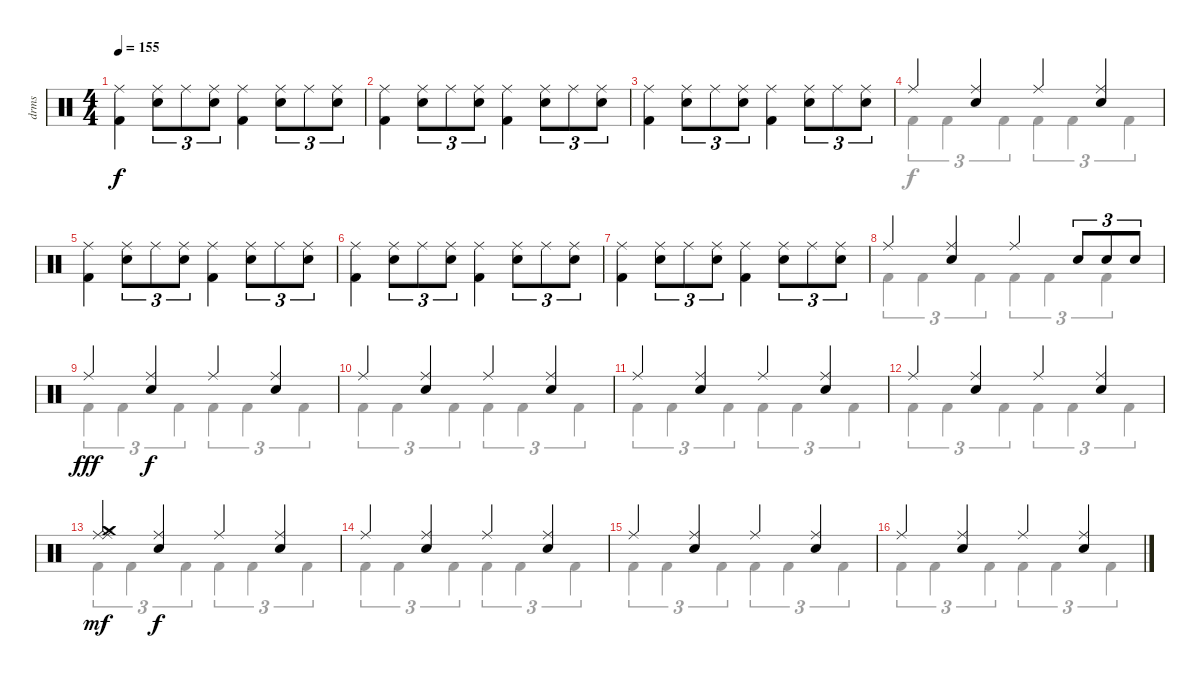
\track ("drms" "drms") {instrument percussion}
\staff {score}
\articulation defaults
\voice
\ts (4 4)
\tempo 155
\clef neutral
\ks c
("Ride (middle)" "Kick (hit) 2").4{dy f} ("Ride (middle)" "Snare (hit) 2").8{tu (3 2)} "Ride (middle)".8{tu (3 2)} ("Ride (middle)" "Snare (hit) 2").8{tu (3 2)} ("Ride (middle)" "Kick (hit) 2").4 ("Ride (middle)" "Snare (hit) 2").8{tu (3 2)} "Ride (middle)".8{tu (3 2)} ("Ride (middle)" "Snare (hit) 2").8{tu (3 2)} |
("Ride (middle)" "Kick (hit) 2").4 ("Ride (middle)" "Snare (hit) 2").8{tu (3 2)} "Ride (middle)".8{tu (3 2)} ("Ride (middle)" "Snare (hit) 2").8{tu (3 2)} ("Ride (middle)" "Kick (hit) 2").4 ("Ride (middle)" "Snare (hit) 2").8{tu (3 2)} "Ride (middle)".8{tu (3 2)} ("Ride (middle)" "Snare (hit) 2").8{tu (3 2)} |
("Ride (middle)" "Kick (hit) 2").4 ("Ride (middle)" "Snare (hit) 2").8{tu (3 2)} "Ride (middle)".8{tu (3 2)} ("Ride (middle)" "Snare (hit) 2").8{tu (3 2)} ("Ride (middle)" "Kick (hit) 2").4 ("Ride (middle)" "Snare (hit) 2").8{tu (3 2)} "Ride (middle)".8{tu (3 2)} ("Ride (middle)" "Snare (hit) 2").8{tu (3 2)} |
"Ride (middle)".4 ("Ride (middle)" "Snare (hit) 2").4 "Ride (middle)".4 ("Ride (middle)" "Snare (hit) 2").4 |
("Ride (middle)" "Kick (hit) 2").4 ("Ride (middle)" "Snare (hit) 2").8{tu (3 2)} "Ride (middle)".8{tu (3 2)} ("Ride (middle)" "Snare (hit) 2").8{tu (3 2)} ("Ride (middle)" "Kick (hit) 2").4 ("Ride (middle)" "Snare (hit) 2").8{tu (3 2)} "Ride (middle)".8{tu (3 2)} ("Ride (middle)" "Snare (hit) 2").8{tu (3 2)} |
("Ride (middle)" "Kick (hit) 2").4 ("Ride (middle)" "Snare (hit) 2").8{tu (3 2)} "Ride (middle)".8{tu (3 2)} ("Ride (middle)" "Snare (hit) 2").8{tu (3 2)} ("Ride (middle)" "Kick (hit) 2").4 ("Ride (middle)" "Snare (hit) 2").8{tu (3 2)} "Ride (middle)".8{tu (3 2)} ("Ride (middle)" "Snare (hit) 2").8{tu (3 2)} |
("Ride (middle)" "Kick (hit) 2").4 ("Ride (middle)" "Snare (hit) 2").8{tu (3 2)} "Ride (middle)".8{tu (3 2)} ("Ride (middle)" "Snare (hit) 2").8{tu (3 2)} ("Ride (middle)" "Kick (hit) 2").4 ("Ride (middle)" "Snare (hit) 2").8{tu (3 2)} "Ride (middle)".8{tu (3 2)} ("Ride (middle)" "Snare (hit) 2").8{tu (3 2)} |
"Ride (middle)".4 ("Ride (middle)" "Snare (hit) 2").4 "Ride (middle)".4 "Snare (hit) 2".8{tu (3 2)} "Snare (hit) 2".8{tu (3 2)} "Snare (hit) 2".8{tu (3 2)} |
"Ride (middle)".4{dy fff} ("Ride (middle)" "Snare (hit) 2").4{dy f} "Ride (middle)".4 ("Ride (middle)" "Snare (hit) 2").4 |
"Ride (middle)".4 ("Ride (middle)" "Snare (hit) 2").4 "Ride (middle)".4 ("Ride (middle)" "Snare (hit) 2").4 |
"Ride (middle)".4 ("Ride (middle)" "Snare (hit) 2").4 "Ride (middle)".4 ("Ride (middle)" "Snare (hit) 2").4 |
"Ride (middle)".4 ("Ride (middle)" "Snare (hit) 2").4 "Ride (middle)".4 ("Ride (middle)" "Snare (hit) 2").4 |
("Ride (middle)" "Ride (middle)" "Crash medium (hit)").4{dy mf} ("Ride (middle)" "Snare (hit) 2").4{dy f} "Ride (middle)".4 ("Ride (middle)" "Snare (hit) 2").4 |
"Ride (middle)".4 ("Ride (middle)" "Snare (hit) 2").4 "Ride (middle)".4 ("Ride (middle)" "Snare (hit) 2").4 |
"Ride (middle)".4 ("Ride (middle)" "Snare (hit) 2").4 "Ride (middle)".4 ("Ride (middle)" "Snare (hit) 2").4 |
"Ride (middle)".4 ("Ride (middle)" "Snare (hit) 2").4 "Ride (middle)".4 ("Ride (middle)" "Snare (hit) 2").4
\voice
\clef neutral
\ottava regular
\simile none
\ks c
|
|
|
"Kick (hit) 2".4{tu (3 2)} "Kick (hit) 2".4{tu (3 2)} "Kick (hit) 2".4{tu (3 2)} "Kick (hit) 2".4{tu (3 2)} "Kick (hit) 2".4{tu (3 2)} "Kick (hit) 2".4{tu (3 2)} |
|
|
|
"Kick (hit) 2".4{tu (3 2)} "Kick (hit) 2".4{tu (3 2)} "Kick (hit) 2".4{tu (3 2)} "Kick (hit) 2".4{tu (3 2)} "Kick (hit) 2".4{tu (3 2)} "Kick (hit) 2".4{tu (3 2)} |
"Kick (hit) 2".4{tu (3 2)} "Kick (hit) 2".4{tu (3 2)} "Kick (hit) 2".4{tu (3 2)} "Kick (hit) 2".4{tu (3 2)} "Kick (hit) 2".4{tu (3 2)} "Kick (hit) 2".4{tu (3 2)} |
"Kick (hit) 2".4{tu (3 2)} "Kick (hit) 2".4{tu (3 2)} "Kick (hit) 2".4{tu (3 2)} "Kick (hit) 2".4{tu (3 2)} "Kick (hit) 2".4{tu (3 2)} "Kick (hit) 2".4{tu (3 2)} |
"Kick (hit) 2".4{tu (3 2)} "Kick (hit) 2".4{tu (3 2)} "Kick (hit) 2".4{tu (3 2)} "Kick (hit) 2".4{tu (3 2)} "Kick (hit) 2".4{tu (3 2)} "Kick (hit) 2".4{tu (3 2)} |
"Kick (hit) 2".4{tu (3 2)} "Kick (hit) 2".4{tu (3 2)} "Kick (hit) 2".4{tu (3 2)} "Kick (hit) 2".4{tu (3 2)} "Kick (hit) 2".4{tu (3 2)} "Kick (hit) 2".4{tu (3 2)} |
"Kick (hit) 2".4{tu (3 2)} "Kick (hit) 2".4{tu (3 2)} "Kick (hit) 2".4{tu (3 2)} "Kick (hit) 2".4{tu (3 2)} "Kick (hit) 2".4{tu (3 2)} "Kick (hit) 2".4{tu (3 2)} |
"Kick (hit) 2".4{tu (3 2)} "Kick (hit) 2".4{tu (3 2)} "Kick (hit) 2".4{tu (3 2)} "Kick (hit) 2".4{tu (3 2)} "Kick (hit) 2".4{tu (3 2)} "Kick (hit) 2".4{tu (3 2)} |
"Kick (hit) 2".4{tu (3 2)} "Kick (hit) 2".4{tu (3 2)} "Kick (hit) 2".4{tu (3 2)} "Kick (hit) 2".4{tu (3 2)} "Kick (hit) 2".4{tu (3 2)} "Kick (hit) 2".4{tu (3 2)} |
"Kick (hit) 2".4{tu (3 2)} "Kick (hit) 2".4{tu (3 2)} "Kick (hit) 2".4{tu (3 2)} "Kick (hit) 2".4{tu (3 2)} "Kick (hit) 2".4{tu (3 2)} "Kick (hit) 2".4{tu (3 2)}
